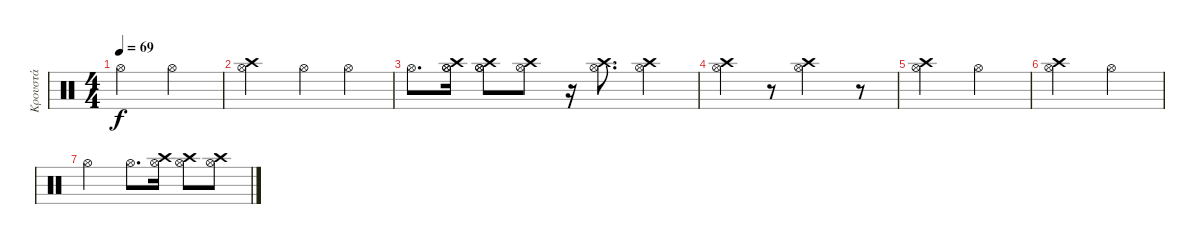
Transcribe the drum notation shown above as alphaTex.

\track ("Κρουστά" "Κρουστά") {instrument percussion}
\staff {score}
\articulation defaults
\ts (4 4)
\tempo 69
\clef neutral
\ks c "Hi-Hat (open)".2{dy f} "Hi-Hat (open)".2
|
("Crash high (hit)" "Hi-Hat (open)").2 "Hi-Hat (open)".4 "Hi-Hat (open)".4 |
"Hi-Hat (open)".8{d} ("Hi-Hat (open)" "Hi-Hat (open)" "Crash high (hit)").16 ("Hi-Hat (open)" "Hi-Hat (open)" "Crash high (hit)").8 ("Hi-Hat (open)" "Crash high (hit)").8 r.16 ("Hi-Hat (open)" "Crash high (hit)").8{d} ("Hi-Hat (open)" "Crash high (hit)").4 |
("Crash high (hit)" "Hi-Hat (open)").4 r.8 ("Hi-Hat (open)" "Crash high (hit)").2 r.8 |
("Crash high (hit)" "Hi-Hat (open)").2 "Hi-Hat (open)".2 |
("Crash high (hit)" "Hi-Hat (open)").2 "Hi-Hat (open)".2 |
"Hi-Hat (open)".2 "Hi-Hat (open)".8{d} ("Hi-Hat (open)" "Crash high (hit)").16 ("Hi-Hat (open)" "Crash high (hit)").8 ("Hi-Hat (open)" "Crash high (hit)").8
